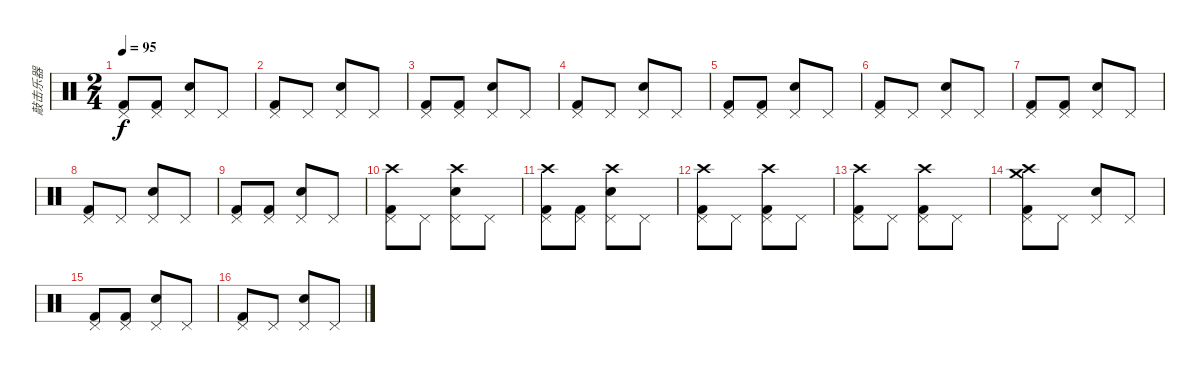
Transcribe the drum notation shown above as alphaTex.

\track ("敲击乐器" "敲击乐器") {instrument percussion}
\staff {score}
\articulation defaults
\ts (2 4)
\tempo 95
\clef neutral
\ks c
("Pedal Hi-Hat (hit)" "Kick (hit) 2").8{dy f} ("Pedal Hi-Hat (hit)" "Kick (hit) 2").8 ("Pedal Hi-Hat (hit)" "Electric Snare (hit)").8 "Pedal Hi-Hat (hit)".8 |
("Pedal Hi-Hat (hit)" "Kick (hit) 2").8 "Pedal Hi-Hat (hit)".8 ("Pedal Hi-Hat (hit)" "Electric Snare (hit)").8 "Pedal Hi-Hat (hit)".8 |
("Pedal Hi-Hat (hit)" "Kick (hit) 2").8 ("Pedal Hi-Hat (hit)" "Kick (hit) 2").8 ("Pedal Hi-Hat (hit)" "Electric Snare (hit)").8 "Pedal Hi-Hat (hit)".8 |
("Pedal Hi-Hat (hit)" "Kick (hit) 2").8 "Pedal Hi-Hat (hit)".8 ("Pedal Hi-Hat (hit)" "Electric Snare (hit)").8 "Pedal Hi-Hat (hit)".8 |
("Pedal Hi-Hat (hit)" "Kick (hit) 2").8 ("Pedal Hi-Hat (hit)" "Kick (hit) 2").8 ("Pedal Hi-Hat (hit)" "Electric Snare (hit)").8 "Pedal Hi-Hat (hit)".8 |
("Pedal Hi-Hat (hit)" "Kick (hit) 2").8 "Pedal Hi-Hat (hit)".8 ("Pedal Hi-Hat (hit)" "Electric Snare (hit)").8 "Pedal Hi-Hat (hit)".8 |
("Pedal Hi-Hat (hit)" "Kick (hit) 2").8 ("Pedal Hi-Hat (hit)" "Kick (hit) 2").8 ("Pedal Hi-Hat (hit)" "Electric Snare (hit)").8 "Pedal Hi-Hat (hit)".8 |
("Pedal Hi-Hat (hit)" "Kick (hit) 2").8 "Pedal Hi-Hat (hit)".8 ("Pedal Hi-Hat (hit)" "Electric Snare (hit)").8 "Pedal Hi-Hat (hit)".8 |
("Pedal Hi-Hat (hit)" "Kick (hit) 2").8 ("Pedal Hi-Hat (hit)" "Kick (hit) 2").8 ("Pedal Hi-Hat (hit)" "Electric Snare (hit)").8 "Pedal Hi-Hat (hit)".8 |
("Pedal Hi-Hat (hit)" "Crash high (hit)" "Kick (hit) 2").8 "Pedal Hi-Hat (hit)".8 ("Pedal Hi-Hat (hit)" "Crash high (hit)" "Electric Snare (hit)").8 "Pedal Hi-Hat (hit)".8 |
("Pedal Hi-Hat (hit)" "Crash high (hit)" "Kick (hit) 2").8 ("Pedal Hi-Hat (hit)" "Kick (hit) 2").8 ("Pedal Hi-Hat (hit)" "Crash high (hit)" "Electric Snare (hit)").8 "Pedal Hi-Hat (hit)".8 |
("Pedal Hi-Hat (hit)" "Crash high (hit)" "Kick (hit) 2").8 "Pedal Hi-Hat (hit)".8 ("Pedal Hi-Hat (hit)" "Crash high (hit)" "Kick (hit) 2").8 "Pedal Hi-Hat (hit)".8 |
("Pedal Hi-Hat (hit)" "Crash high (hit)" "Kick (hit) 2").8 "Pedal Hi-Hat (hit)".8 ("Pedal Hi-Hat (hit)" "Crash high (hit)" "Kick (hit) 2").8 "Pedal Hi-Hat (hit)".8 |
("Pedal Hi-Hat (hit)" "Crash high (hit)" "Crash medium (hit)" "Kick (hit) 2").8 "Pedal Hi-Hat (hit)".8 ("Pedal Hi-Hat (hit)" "Electric Snare (hit)").8 "Pedal Hi-Hat (hit)".8 |
("Pedal Hi-Hat (hit)" "Kick (hit) 2").8 ("Pedal Hi-Hat (hit)" "Kick (hit) 2").8 ("Pedal Hi-Hat (hit)" "Electric Snare (hit)").8 "Pedal Hi-Hat (hit)".8 |
("Pedal Hi-Hat (hit)" "Kick (hit) 2").8 "Pedal Hi-Hat (hit)".8 ("Pedal Hi-Hat (hit)" "Electric Snare (hit)").8 "Pedal Hi-Hat (hit)".8
